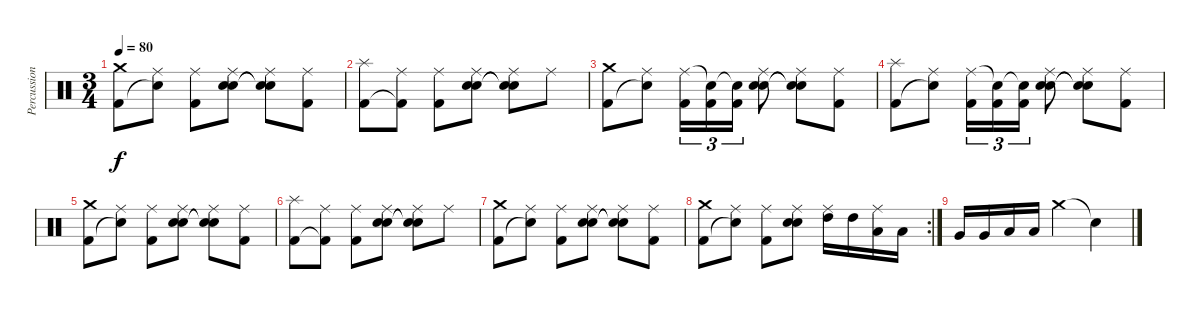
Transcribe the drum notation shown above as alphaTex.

\track ("Percussion" "Percussion") {instrument percussion}
\staff {score}
\articulation defaults
\ts (3 4)
\tempo 80
\clef neutral
\ks c
("Crash medium (hit)" "Kick (hit) 2").8{dy f} ("Ride (middle)" "Snare (hit)"{t}).8 ("Ride (middle)" "Kick (hit) 2").8 ("Ride (middle)" "Snare (hit) 2" "Snare (hit) 2").8 ("Ride (middle)" "Snare (hit)"{t} "Snare (hit)"{t}).8 ("Ride (middle)" "Kick (hit) 2").8 |
("Splash (hit)" "Kick (hit) 2").8 ("Ride (middle)" "Kick (hit) 2"{t}).8 ("Ride (middle)" "Kick (hit) 2").8 ("Ride (middle)" "Snare (hit) 2" "Snare (hit) 2").8 ("Ride (middle)" "Snare (hit)"{t} "Snare (hit)"{t}).8 "Ride (middle)".8 |
("Crash medium (hit)" "Kick (hit) 2").8 ("Ride (middle)" "Snare (hit)"{t}).8 ("Ride (middle)" "Kick (hit) 2").16{tu (3 2)} ("Snare (hit)"{t} "Kick (hit) 2").16{tu (3 2)} ("Snare (hit)"{t} "Kick (hit) 2").16{tu (3 2)} ("Ride (middle)" "Snare (hit) 2" "Snare (hit) 2").8 ("Ride (middle)" "Snare (hit)"{t} "Snare (hit)"{t}).8 ("Ride (middle)" "Kick (hit) 2").8 |
("Splash (hit)" "Kick (hit) 2").8 ("Ride (middle)" "Snare (hit)"{t}).8 ("Ride (middle)" "Kick (hit) 2").16{tu (3 2)} ("Snare (hit)"{t} "Kick (hit) 2").16{tu (3 2)} ("Snare (hit)"{t} "Kick (hit) 2").16{tu (3 2)} ("Ride (middle)" "Snare (hit) 2" "Snare (hit) 2").8 ("Ride (middle)" "Snare (hit)"{t} "Snare (hit)"{t}).8 ("Ride (middle)" "Kick (hit) 2").8 |
("Crash medium (hit)" "Kick (hit) 2").8 ("Ride (middle)" "Snare (hit)"{t}).8 ("Ride (middle)" "Kick (hit) 2").8 ("Ride (middle)" "Snare (hit) 2" "Snare (hit) 2").8 ("Ride (middle)" "Snare (hit)"{t} "Snare (hit)"{t}).8 ("Ride (middle)" "Kick (hit) 2").8 |
("Splash (hit)" "Kick (hit) 2").8 ("Ride (middle)" "Kick (hit) 2"{t}).8 ("Ride (middle)" "Kick (hit) 2").8 ("Ride (middle)" "Snare (hit) 2" "Snare (hit) 2").8 ("Ride (middle)" "Snare (hit)"{t} "Snare (hit)"{t}).8 "Ride (middle)".8 |
("Crash medium (hit)" "Kick (hit) 2").8 ("Ride (middle)" "Snare (hit)"{t}).8 ("Ride (middle)" "Kick (hit) 2").8 ("Ride (middle)" "Snare (hit) 2" "Snare (hit) 2").8 ("Ride (middle)" "Snare (hit)"{t} "Snare (hit)"{t}).8 ("Ride (middle)" "Kick (hit) 2").8 |
\rc 2
("Crash medium (hit)" "Kick (hit) 2").8 ("Ride (middle)" "Snare (hit)"{t}).8 ("Ride (middle)" "Kick (hit) 2").8 ("Ride (middle)" "Snare (hit) 2" "Snare (hit) 2").8 ("Ride (middle)" "High Tom (hit)").16 "High Tom (hit)".16 ("Ride (middle)" "Low Tom (hit)").16 "Low Tom (hit)".16 |
"Very Low Tom (hit)".16 "Very Low Tom (hit)".16 "Low Floor Tom (hit)".16 "Low Floor Tom (hit)".16 "Crash medium (hit)".4 "Snare (hit)"{t}.4
